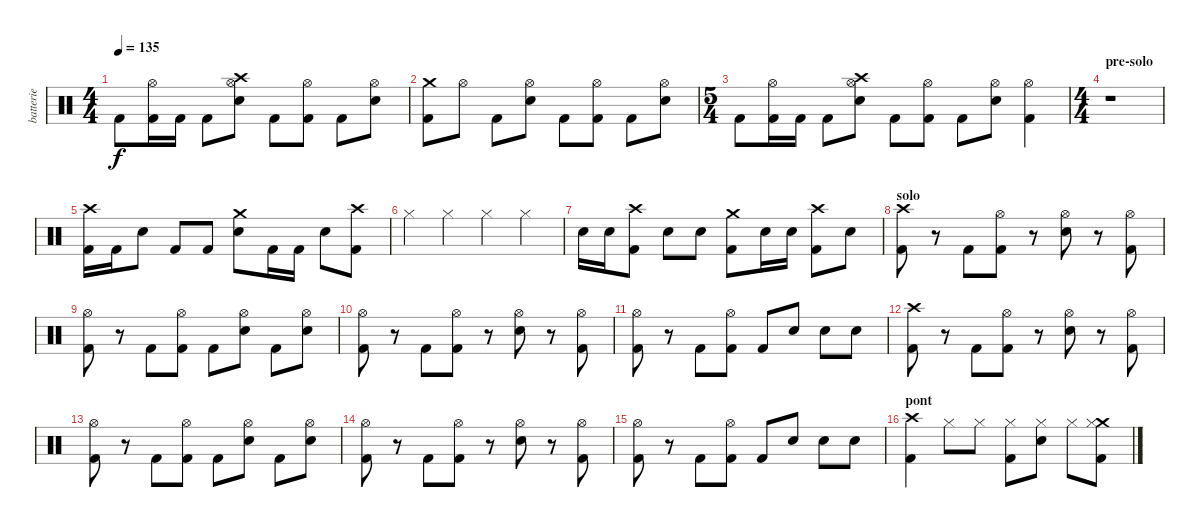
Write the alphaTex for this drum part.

\track ("batterie" "batterie") {instrument percussion}
\staff {score}
\articulation defaults
\ts (4 4)
\tempo 135
\clef neutral
\ks c "Kick (hit) 2".8{dy f}
("Kick (hit) 2" "Hi-Hat (open)").16 "Kick (hit) 2".16 "Kick (hit) 2".8 ("Crash high (hit)" "Snare (hit) 2" "Hi-Hat (open)").8 "Kick (hit) 2".8 ("Kick (hit) 2" "Hi-Hat (open)").8 "Kick (hit) 2".8 ("Snare (hit) 2" "Hi-Hat (open)").8 |
("Crash medium (hit)" "Kick (hit) 2").8 "Hi-Hat (open)".8 "Kick (hit) 2".8 ("Snare (hit) 2" "Hi-Hat (open)").8 "Kick (hit) 2".8 ("Kick (hit) 2" "Hi-Hat (open)").8 "Kick (hit) 2".8 ("Snare (hit) 2" "Hi-Hat (open)").8 |
\ts (5 4)
"Kick (hit) 2".8 ("Kick (hit) 2" "Hi-Hat (open)").16 "Kick (hit) 2".16 "Kick (hit) 2".8 ("Crash high (hit)" "Snare (hit) 2" "Hi-Hat (open)").8 "Kick (hit) 2".8 ("Kick (hit) 2" "Hi-Hat (open)").8 "Kick (hit) 2".8 ("Snare (hit) 2" "Hi-Hat (open)").8 ("Kick (hit) 2" "Hi-Hat (open)").4 |
\ts (4 4)
\section ("" "pre-solo")
r.1 |
("Crash high (hit)" "Kick (hit) 2").16 "Kick (hit) 2".16 "Snare (hit) 2".8 "Kick (hit) 2".8 "Kick (hit) 2".8 ("Crash medium (hit)" "Snare (hit) 2").8 "Kick (hit) 2".16 "Kick (hit) 2".16 "Snare (hit) 2".8 ("Crash high (hit)" "Kick (hit) 2").8 |
"Hi-Hat (closed)".4 "Hi-Hat (closed)".4 "Hi-Hat (closed)".4 "Hi-Hat (closed)".4 |
"Snare (hit) 2".16 "Snare (hit) 2".16 ("Crash high (hit)" "Kick (hit) 2").8 "Snare (hit) 2".8 "Snare (hit) 2".8 ("Crash medium (hit)" "Kick (hit) 2").8 "Snare (hit) 2".16 "Snare (hit) 2".16 ("Crash high (hit)" "Kick (hit) 2").8 "Snare (hit) 2".8 |
\section ("" "solo")
("Crash high (hit)" "Kick (hit) 2").8 r.8 "Kick (hit) 2".8 ("Kick (hit) 2" "Hi-Hat (open)").8 r.8 ("Snare (hit) 2" "Hi-Hat (open)").8 r.8 ("Kick (hit) 2" "Hi-Hat (open)").8 |
("Kick (hit) 2" "Hi-Hat (open)").8 r.8 "Kick (hit) 2".8 ("Kick (hit) 2" "Hi-Hat (open)").8 "Kick (hit) 2".8 ("Snare (hit) 2" "Hi-Hat (open)").8 "Kick (hit) 2".8 ("Snare (hit) 2" "Hi-Hat (open)").8 |
("Kick (hit) 2" "Hi-Hat (open)").8 r.8 "Kick (hit) 2".8 ("Kick (hit) 2" "Hi-Hat (open)").8 r.8 ("Snare (hit) 2" "Hi-Hat (open)").8 r.8 ("Kick (hit) 2" "Hi-Hat (open)").8 |
("Kick (hit) 2" "Hi-Hat (open)").8 r.8 "Kick (hit) 2".8 ("Kick (hit) 2" "Hi-Hat (open)").8 "Kick (hit) 2".8 "Snare (hit) 2".8 "Snare (hit) 2".8 "Snare (hit) 2".8 |
("Crash high (hit)" "Kick (hit) 2").8 r.8 "Kick (hit) 2".8 ("Kick (hit) 2" "Hi-Hat (open)").8 r.8 ("Snare (hit) 2" "Hi-Hat (open)").8 r.8 ("Kick (hit) 2" "Hi-Hat (open)").8 |
("Kick (hit) 2" "Hi-Hat (open)").8 r.8 "Kick (hit) 2".8 ("Kick (hit) 2" "Hi-Hat (open)").8 "Kick (hit) 2".8 ("Snare (hit) 2" "Hi-Hat (open)").8 "Kick (hit) 2".8 ("Snare (hit) 2" "Hi-Hat (open)").8 |
("Kick (hit) 2" "Hi-Hat (open)").8 r.8 "Kick (hit) 2".8 ("Kick (hit) 2" "Hi-Hat (open)").8 r.8 ("Snare (hit) 2" "Hi-Hat (open)").8 r.8 ("Kick (hit) 2" "Hi-Hat (open)").8 |
("Kick (hit) 2" "Hi-Hat (open)").8 r.8 "Kick (hit) 2".8 ("Kick (hit) 2" "Hi-Hat (open)").8 "Kick (hit) 2".8 "Snare (hit) 2".8 "Snare (hit) 2".8 "Snare (hit) 2".8 |
\section ("" "pont")
("Crash high (hit)" "Kick (hit) 2").4 "Hi-Hat (closed)".8 "Hi-Hat (closed)".8 ("Kick (hit) 2" "Hi-Hat (closed)").8 ("Snare (hit) 2" "Hi-Hat (closed)").8 "Hi-Hat (closed)".8 ("Crash medium (hit)" "Kick (hit) 2" "Hi-Hat (closed)").8
